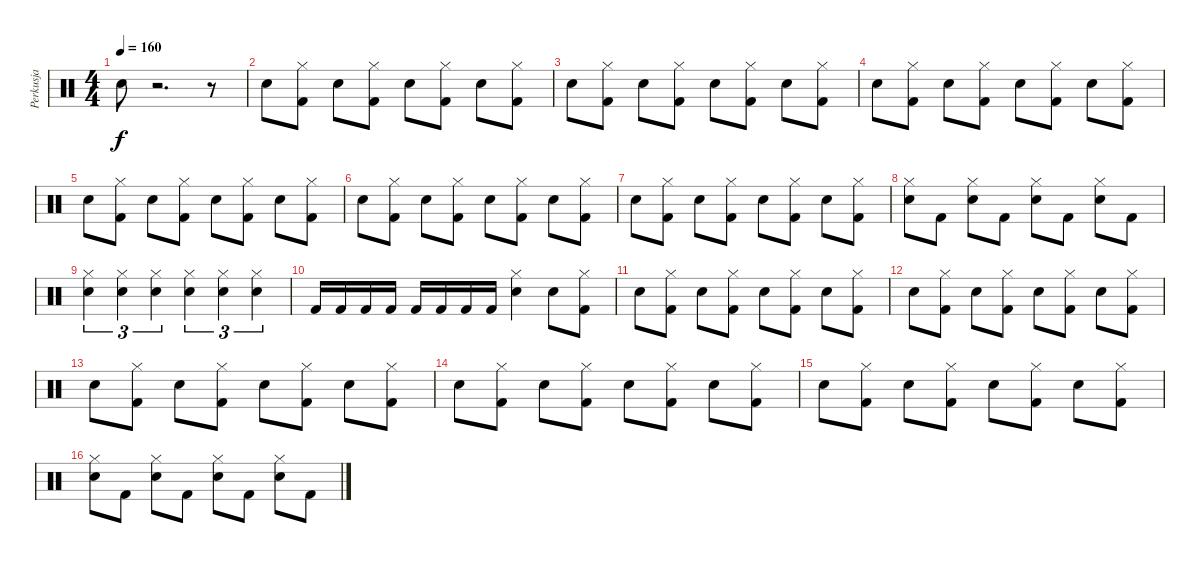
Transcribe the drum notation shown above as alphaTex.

\track ("Perkusja" "Perkusja") {instrument percussion}
\staff {score}
\articulation defaults
\ts (4 4)
\tempo 160
\clef neutral
\ks c "Snare (hit) 2".8{dy f}
r.2{d} r.8 |
"Snare (hit) 2".8 ("Kick (hit) 2" "Hi-Hat (closed)").8 "Snare (hit) 2".8 ("Kick (hit) 2" "Hi-Hat (closed)").8 "Snare (hit) 2".8 ("Kick (hit) 2" "Hi-Hat (closed)").8 "Snare (hit) 2".8 ("Kick (hit) 2" "Hi-Hat (closed)").8 |
"Snare (hit) 2".8 ("Kick (hit) 2" "Hi-Hat (closed)").8 "Snare (hit) 2".8 ("Kick (hit) 2" "Hi-Hat (closed)").8 "Snare (hit) 2".8 ("Kick (hit) 2" "Hi-Hat (closed)").8 "Snare (hit) 2".8 ("Kick (hit) 2" "Hi-Hat (closed)").8 |
"Snare (hit) 2".8 ("Kick (hit) 2" "Hi-Hat (closed)").8 "Snare (hit) 2".8 ("Kick (hit) 2" "Hi-Hat (closed)").8 "Snare (hit) 2".8 ("Kick (hit) 2" "Hi-Hat (closed)").8 "Snare (hit) 2".8 ("Kick (hit) 2" "Hi-Hat (closed)").8 |
"Snare (hit) 2".8 ("Kick (hit) 2" "Hi-Hat (closed)").8 "Snare (hit) 2".8 ("Kick (hit) 2" "Hi-Hat (closed)").8 "Snare (hit) 2".8 ("Kick (hit) 2" "Hi-Hat (closed)").8 "Snare (hit) 2".8 ("Kick (hit) 2" "Hi-Hat (closed)").8 |
"Snare (hit) 2".8 ("Kick (hit) 2" "Hi-Hat (closed)").8 "Snare (hit) 2".8 ("Kick (hit) 2" "Hi-Hat (closed)").8 "Snare (hit) 2".8 ("Kick (hit) 2" "Hi-Hat (closed)").8 "Snare (hit) 2".8 ("Kick (hit) 2" "Hi-Hat (closed)").8 |
"Snare (hit) 2".8 ("Kick (hit) 2" "Hi-Hat (closed)").8 "Snare (hit) 2".8 ("Kick (hit) 2" "Hi-Hat (closed)").8 "Snare (hit) 2".8 ("Kick (hit) 2" "Hi-Hat (closed)").8 "Snare (hit) 2".8 ("Kick (hit) 2" "Hi-Hat (closed)").8 |
("Snare (hit) 2" "Hi-Hat (closed)").8 "Kick (hit) 2".8 ("Snare (hit) 2" "Hi-Hat (closed)").8 "Kick (hit) 2".8 ("Snare (hit) 2" "Hi-Hat (closed)").8 "Kick (hit) 2".8 ("Snare (hit) 2" "Hi-Hat (closed)").8 "Kick (hit) 2".8 |
("Snare (hit) 2" "Hi-Hat (closed)").4{tu (3 2)} ("Snare (hit) 2" "Hi-Hat (closed)").4{tu (3 2)} ("Snare (hit) 2" "Hi-Hat (closed)").4{tu (3 2)} ("Snare (hit) 2" "Hi-Hat (closed)").4{tu (3 2)} ("Snare (hit) 2" "Hi-Hat (closed)").4{tu (3 2)} ("Snare (hit) 2" "Hi-Hat (closed)").4{tu (3 2)} |
"Kick (hit) 2".16 "Kick (hit) 2".16 "Kick (hit) 2".16 "Kick (hit) 2".16 "Kick (hit) 2".16 "Kick (hit) 2".16 "Kick (hit) 2".16 "Kick (hit) 2".16 ("Snare (hit) 2" "Hi-Hat (closed)").4 "Snare (hit) 2".8 ("Kick (hit) 2" "Hi-Hat (closed)").8 |
"Snare (hit) 2".8 ("Kick (hit) 2" "Hi-Hat (closed)").8 "Snare (hit) 2".8 ("Kick (hit) 2" "Hi-Hat (closed)").8 "Snare (hit) 2".8 ("Kick (hit) 2" "Hi-Hat (closed)").8 "Snare (hit) 2".8 ("Kick (hit) 2" "Hi-Hat (closed)").8 |
"Snare (hit) 2".8 ("Kick (hit) 2" "Hi-Hat (closed)").8 "Snare (hit) 2".8 ("Kick (hit) 2" "Hi-Hat (closed)").8 "Snare (hit) 2".8 ("Kick (hit) 2" "Hi-Hat (closed)").8 "Snare (hit) 2".8 ("Kick (hit) 2" "Hi-Hat (closed)").8 |
"Snare (hit) 2".8 ("Kick (hit) 2" "Hi-Hat (closed)").8 "Snare (hit) 2".8 ("Kick (hit) 2" "Hi-Hat (closed)").8 "Snare (hit) 2".8 ("Kick (hit) 2" "Hi-Hat (closed)").8 "Snare (hit) 2".8 ("Kick (hit) 2" "Hi-Hat (closed)").8 |
"Snare (hit) 2".8 ("Kick (hit) 2" "Hi-Hat (closed)").8 "Snare (hit) 2".8 ("Kick (hit) 2" "Hi-Hat (closed)").8 "Snare (hit) 2".8 ("Kick (hit) 2" "Hi-Hat (closed)").8 "Snare (hit) 2".8 ("Kick (hit) 2" "Hi-Hat (closed)").8 |
"Snare (hit) 2".8 ("Kick (hit) 2" "Hi-Hat (closed)").8 "Snare (hit) 2".8 ("Kick (hit) 2" "Hi-Hat (closed)").8 "Snare (hit) 2".8 ("Kick (hit) 2" "Hi-Hat (closed)").8 "Snare (hit) 2".8 ("Kick (hit) 2" "Hi-Hat (closed)").8 |
("Snare (hit) 2" "Hi-Hat (closed)").8 "Kick (hit) 2".8 ("Snare (hit) 2" "Hi-Hat (closed)").8 "Kick (hit) 2".8 ("Snare (hit) 2" "Hi-Hat (closed)").8 "Kick (hit) 2".8 ("Snare (hit) 2" "Hi-Hat (closed)").8 "Kick (hit) 2".8
